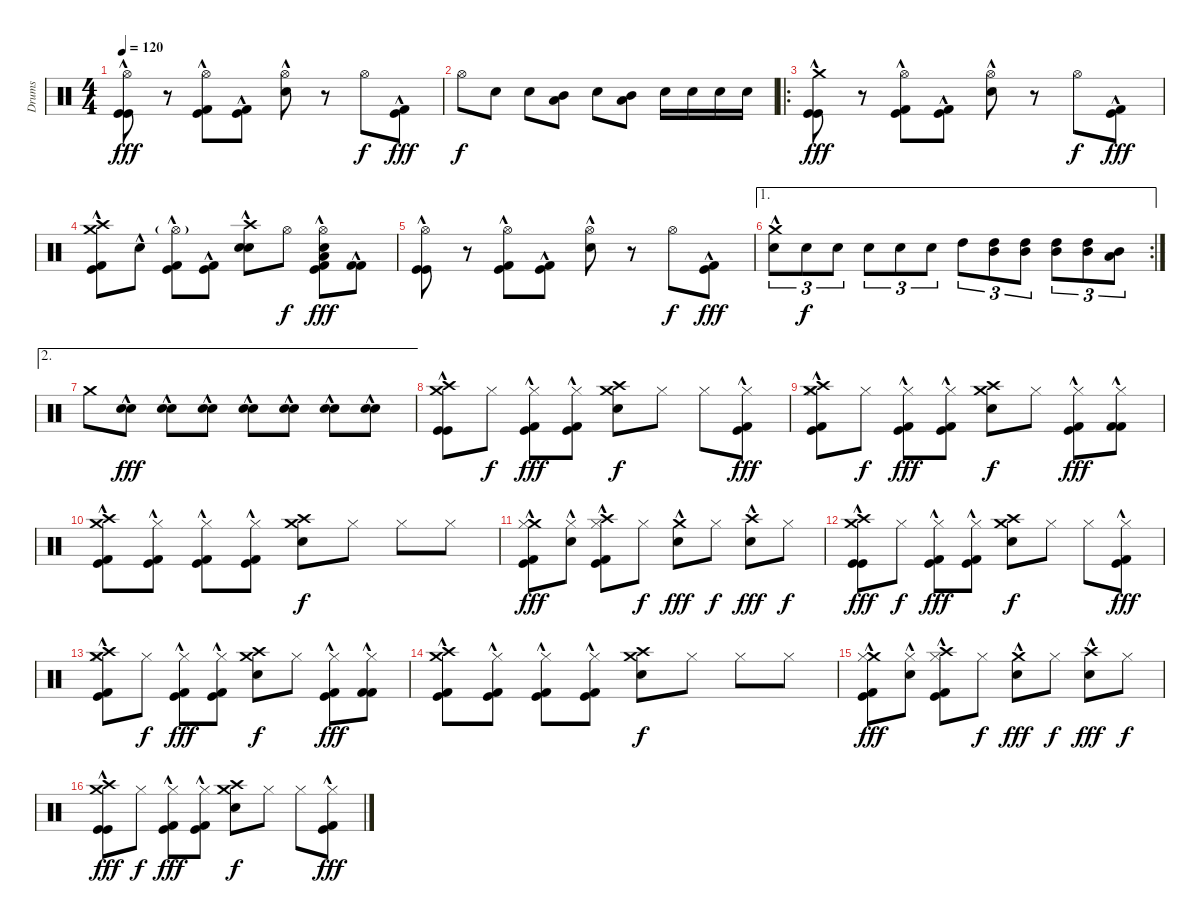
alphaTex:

\track ("Drums" "Drums") {instrument percussion}
\staff {score}
\articulation defaults
\ts (4 4)
\tempo 120
\clef neutral
\ks c
("Hi-Hat (open)" "Kick (hit)" "Kick (hit)"{hac}).8{dy fff} r.8 ("Hi-Hat (open)" "Kick (hit) 2" "Kick (hit)"{hac}).8 ("Kick (hit) 2" "Kick (hit)"{hac}).8 ("Hi-Hat (open)" "Snare (hit) 2"{hac}).8 r.8 "Hi-Hat (open)".8{dy f} ("Kick (hit) 2" "Kick (hit)"{hac}).8{dy fff} |
"Hi-Hat (open)".8{dy f} "Snare (hit) 2".8 "Snare (hit) 2".8 ("Mid Tom (hit)" "Low Tom (hit)").8 "Snare (hit) 2".8 ("Low Tom (hit)" "Mid Tom (hit)").8 "Snare (hit) 2".16 "Snare (hit) 2".16 "Snare (hit) 2".16 "Snare (hit) 2".16 |
\ro
("Crash medium (hit)" "Kick (hit)" "Kick (hit)"{hac}).8{dy fff} r.8 ("Hi-Hat (open)" "Kick (hit) 2" "Kick (hit)"{hac}).8 ("Kick (hit) 2" "Kick (hit)"{hac}).8 ("Hi-Hat (open)" "Snare (hit) 2"{hac}).8 r.8 "Hi-Hat (open)".8{dy f} ("Kick (hit) 2" "Kick (hit)"{hac}).8{dy fff} |
("Crash high (hit)" "Crash medium (hit)" "Kick (hit) 2" "Kick (hit)"{hac}).8 "Snare (hit) 2"{hac}.8 ("Hi-Hat (open)"{g} "Kick (hit) 2" "Kick (hit)"{hac}).8 ("Kick (hit) 2" "Kick (hit)"{hac}).8 ("Crash high (hit)" "Snare (hit) 2" "Snare (hit) 2"{hac}).8 "Hi-Hat (open)".8{dy f} ("Hi-Hat (open)" "Low Tom (hit)"{hac} "Snare (hit) 2"{hac} "Kick (hit) 2" "Kick (hit)"{hac}).8{dy fff} ("Kick (hit) 2" "Kick (hit) 2"{hac}).8 |
("Hi-Hat (open)" "Kick (hit)" "Kick (hit)"{hac}).8 r.8 ("Hi-Hat (open)" "Kick (hit) 2" "Kick (hit)"{hac}).8 ("Kick (hit) 2" "Kick (hit)"{hac}).8 ("Hi-Hat (open)" "Snare (hit) 2"{hac}).8 r.8 "Hi-Hat (open)".8{dy f} ("Kick (hit) 2" "Kick (hit)"{hac}).8{dy fff} |
\ae 1
\rc 2
("Crash medium (hit)"{hac} "Snare (hit) 2").8{tu (3 2)} "Snare (hit) 2".8{tu (3 2) dy f} "Snare (hit) 2".8{tu (3 2)} "Snare (hit) 2".8{tu (3 2)} "Snare (hit) 2".8{tu (3 2)} "Snare (hit) 2".8{tu (3 2)} "High Tom (hit)".8{tu (3 2)} ("Mid Tom (hit)" "High Tom (hit)").8{tu (3 2)} ("Mid Tom (hit)" "High Tom (hit)").8{tu (3 2)} ("Mid Tom (hit)" "High Tom (hit)").8{tu (3 2)} ("Mid Tom (hit)" "High Tom (hit)").8{tu (3 2)} ("Low Tom (hit)" "Mid Tom (hit)").8{tu (3 2)} |
\ae 2 "Crash medium (hit)".8
("Snare (hit) 2" "Snare (hit) 2"{hac}).8{dy fff} ("Snare (hit) 2" "Snare (hit) 2"{hac}).8 ("Snare (hit) 2" "Snare (hit) 2"{hac}).8 ("Snare (hit) 2" "Snare (hit) 2"{hac}).8 ("Snare (hit) 2" "Snare (hit) 2"{hac}).8 ("Snare (hit) 2" "Snare (hit) 2"{hac}).8 ("Snare (hit) 2" "Snare (hit) 2"{hac}).8 |
("Crash medium (hit)" "Crash high (hit)" "Kick (hit)" "Kick (hit)"{hac}).8 "Hi-Hat (closed)".8{dy f} ("Hi-Hat (closed)" "Kick (hit) 2" "Kick (hit)"{hac}).8{dy fff} ("Hi-Hat (closed)" "Kick (hit) 2" "Kick (hit)"{hac}).8 ("Crash medium (hit)" "Crash high (hit)" "Snare (hit) 2").8{dy f} "Hi-Hat (closed)".8 "Hi-Hat (closed)".8 ("Hi-Hat (closed)" "Kick (hit) 2" "Kick (hit)"{hac}).8{dy fff} |
("Crash medium (hit)" "Crash high (hit)" "Hi-Hat (closed)" "Kick (hit) 2" "Kick (hit)"{hac}).8 "Hi-Hat (closed)".8{dy f} ("Hi-Hat (closed)" "Kick (hit) 2" "Kick (hit)"{hac}).8{dy fff} ("Hi-Hat (closed)" "Kick (hit) 2" "Kick (hit)"{hac}).8 ("Crash medium (hit)" "Crash high (hit)" "Snare (hit) 2").8{dy f} "Hi-Hat (closed)".8 ("Hi-Hat (closed)" "Kick (hit) 2" "Kick (hit)"{hac}).8{dy fff} ("Hi-Hat (closed)" "Kick (hit) 2" "Kick (hit) 2"{hac}).8 |
("Crash medium (hit)" "Crash high (hit)" "Kick (hit) 2" "Kick (hit)"{hac}).8 ("Hi-Hat (closed)" "Kick (hit) 2" "Kick (hit)"{hac}).8 ("Hi-Hat (closed)" "Kick (hit) 2" "Kick (hit)"{hac}).8 ("Hi-Hat (closed)" "Kick (hit) 2" "Kick (hit)"{hac}).8 ("Crash medium (hit)" "Crash high (hit)" "Snare (hit) 2").8{dy f} "Hi-Hat (closed)".8 "Hi-Hat (closed)".8 "Hi-Hat (closed)".8 |
("Crash medium (hit)"{hac} "Hi-Hat (closed)" "Kick (hit) 2"{hac} "Kick (hit)"{hac}).8{dy fff} ("Hi-Hat (closed)" "Snare (hit) 2"{hac}).8 ("Crash high (hit)"{hac} "Hi-Hat (closed)" "Kick (hit) 2"{hac} "Kick (hit)"{hac}).8 "Hi-Hat (closed)".8{dy f} ("Crash medium (hit)"{hac} "Snare (hit) 2"{hac}).8{dy fff} "Hi-Hat (closed)".8{dy f} ("Crash high (hit)"{hac} "Snare (hit) 2"{hac}).8{dy fff} "Hi-Hat (closed)".8{dy f} |
("Crash medium (hit)" "Crash high (hit)" "Kick (hit)" "Kick (hit)"{hac}).8{dy fff} "Hi-Hat (closed)".8{dy f} ("Hi-Hat (closed)" "Kick (hit) 2" "Kick (hit)"{hac}).8{dy fff} ("Hi-Hat (closed)" "Kick (hit) 2" "Kick (hit)"{hac}).8 ("Crash medium (hit)" "Crash high (hit)" "Snare (hit) 2").8{dy f} "Hi-Hat (closed)".8 "Hi-Hat (closed)".8 ("Hi-Hat (closed)" "Kick (hit) 2" "Kick (hit)"{hac}).8{dy fff} |
("Crash medium (hit)" "Crash high (hit)" "Hi-Hat (closed)" "Kick (hit) 2" "Kick (hit)"{hac}).8 "Hi-Hat (closed)".8{dy f} ("Hi-Hat (closed)" "Kick (hit) 2" "Kick (hit)"{hac}).8{dy fff} ("Hi-Hat (closed)" "Kick (hit) 2" "Kick (hit)"{hac}).8 ("Crash medium (hit)" "Crash high (hit)" "Snare (hit) 2").8{dy f} "Hi-Hat (closed)".8 ("Hi-Hat (closed)" "Kick (hit) 2" "Kick (hit)"{hac}).8{dy fff} ("Hi-Hat (closed)" "Kick (hit) 2" "Kick (hit) 2"{hac}).8 |
("Crash medium (hit)" "Crash high (hit)" "Kick (hit) 2" "Kick (hit)"{hac}).8 ("Hi-Hat (closed)" "Kick (hit) 2" "Kick (hit)"{hac}).8 ("Hi-Hat (closed)" "Kick (hit) 2" "Kick (hit)"{hac}).8 ("Hi-Hat (closed)" "Kick (hit) 2" "Kick (hit)"{hac}).8 ("Crash medium (hit)" "Crash high (hit)" "Snare (hit) 2").8{dy f} "Hi-Hat (closed)".8 "Hi-Hat (closed)".8 "Hi-Hat (closed)".8 |
("Crash medium (hit)"{hac} "Hi-Hat (closed)" "Kick (hit) 2"{hac} "Kick (hit)"{hac}).8{dy fff} ("Hi-Hat (closed)" "Snare (hit) 2"{hac}).8 ("Crash high (hit)"{hac} "Hi-Hat (closed)" "Kick (hit) 2"{hac} "Kick (hit)"{hac}).8 "Hi-Hat (closed)".8{dy f} ("Crash medium (hit)"{hac} "Snare (hit) 2"{hac}).8{dy fff} "Hi-Hat (closed)".8{dy f} ("Crash high (hit)"{hac} "Snare (hit) 2"{hac}).8{dy fff} "Hi-Hat (closed)".8{dy f} |
("Crash medium (hit)" "Crash high (hit)" "Kick (hit)" "Kick (hit)"{hac}).8{dy fff} "Hi-Hat (closed)".8{dy f} ("Hi-Hat (closed)" "Kick (hit) 2" "Kick (hit)"{hac}).8{dy fff} ("Hi-Hat (closed)" "Kick (hit) 2" "Kick (hit)"{hac}).8 ("Crash medium (hit)" "Crash high (hit)" "Snare (hit) 2").8{dy f} "Hi-Hat (closed)".8 "Hi-Hat (closed)".8 ("Hi-Hat (closed)" "Kick (hit) 2" "Kick (hit)"{hac}).8{dy fff}
